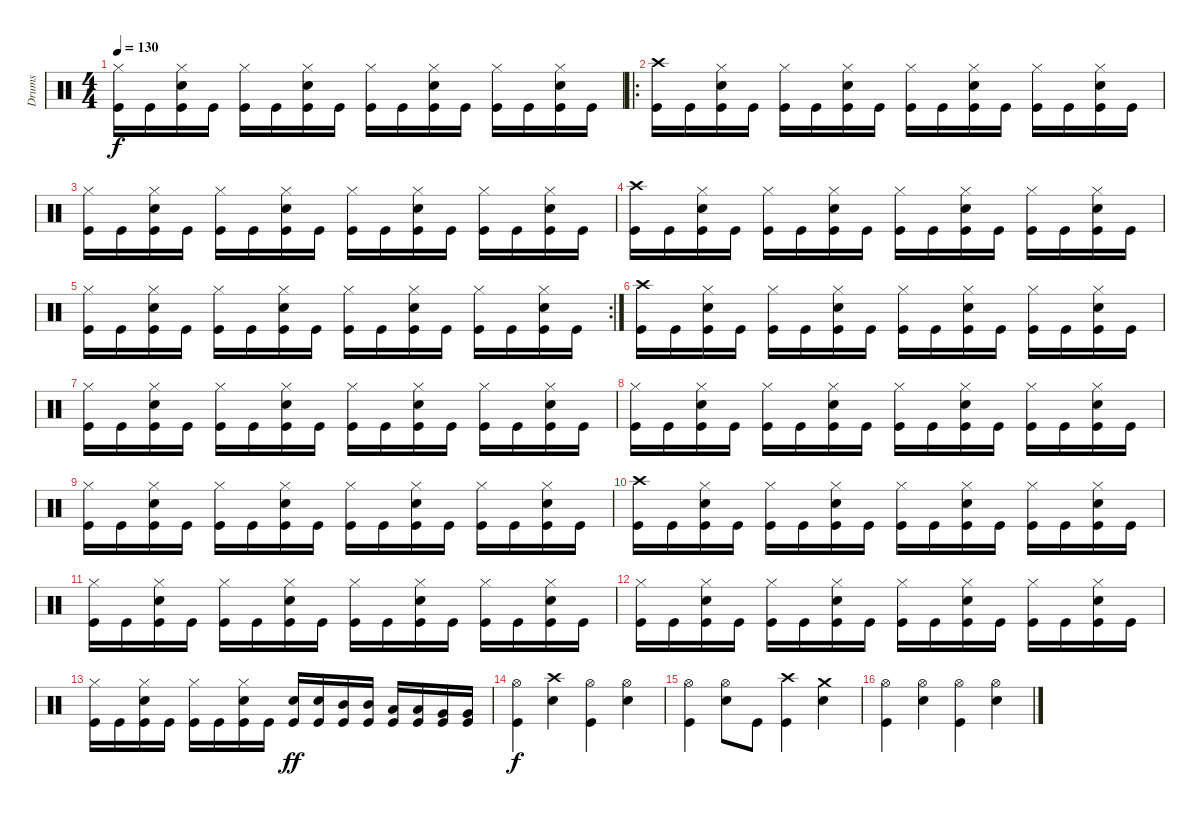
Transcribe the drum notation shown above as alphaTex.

\track ("Drums" "Drums") {instrument percussion}
\staff {score}
\articulation defaults
\ts (4 4)
\tempo 130
\clef neutral
\ks c
("Hi-Hat (closed)" "Kick (hit)").16{dy f} "Kick (hit)".16 ("Hi-Hat (closed)" "Snare (hit) 2" "Kick (hit)").16 "Kick (hit)".16 ("Hi-Hat (closed)" "Kick (hit)").16 "Kick (hit)".16 ("Hi-Hat (closed)" "Snare (hit) 2" "Kick (hit)").16 "Kick (hit)".16 ("Hi-Hat (closed)" "Kick (hit)").16 "Kick (hit)".16 ("Hi-Hat (closed)" "Snare (hit) 2" "Kick (hit)").16 "Kick (hit)".16 ("Hi-Hat (closed)" "Kick (hit)").16 "Kick (hit)".16 ("Hi-Hat (closed)" "Snare (hit) 2" "Kick (hit)").16 "Kick (hit)".16 |
\ro
("Crash high (hit)" "Kick (hit)").16 "Kick (hit)".16 ("Hi-Hat (closed)" "Snare (hit) 2" "Kick (hit)").16 "Kick (hit)".16 ("Hi-Hat (closed)" "Kick (hit)").16 "Kick (hit)".16 ("Hi-Hat (closed)" "Snare (hit) 2" "Kick (hit)").16 "Kick (hit)".16 ("Hi-Hat (closed)" "Kick (hit)").16 "Kick (hit)".16 ("Hi-Hat (closed)" "Snare (hit) 2" "Kick (hit)").16 "Kick (hit)".16 ("Hi-Hat (closed)" "Kick (hit)").16 "Kick (hit)".16 ("Hi-Hat (closed)" "Snare (hit) 2" "Kick (hit)").16 "Kick (hit)".16 |
("Hi-Hat (closed)" "Kick (hit)").16 "Kick (hit)".16 ("Hi-Hat (closed)" "Snare (hit) 2" "Kick (hit)").16 "Kick (hit)".16 ("Hi-Hat (closed)" "Kick (hit)").16 "Kick (hit)".16 ("Hi-Hat (closed)" "Snare (hit) 2" "Kick (hit)").16 "Kick (hit)".16 ("Hi-Hat (closed)" "Kick (hit)").16 "Kick (hit)".16 ("Hi-Hat (closed)" "Snare (hit) 2" "Kick (hit)").16 "Kick (hit)".16 ("Hi-Hat (closed)" "Kick (hit)").16 "Kick (hit)".16 ("Hi-Hat (closed)" "Snare (hit) 2" "Kick (hit)").16 "Kick (hit)".16 |
("Crash high (hit)" "Kick (hit)").16 "Kick (hit)".16 ("Hi-Hat (closed)" "Snare (hit) 2" "Kick (hit)").16 "Kick (hit)".16 ("Hi-Hat (closed)" "Kick (hit)").16 "Kick (hit)".16 ("Hi-Hat (closed)" "Snare (hit) 2" "Kick (hit)").16 "Kick (hit)".16 ("Hi-Hat (closed)" "Kick (hit)").16 "Kick (hit)".16 ("Hi-Hat (closed)" "Snare (hit) 2" "Kick (hit)").16 "Kick (hit)".16 ("Hi-Hat (closed)" "Kick (hit)").16 "Kick (hit)".16 ("Hi-Hat (closed)" "Snare (hit) 2" "Kick (hit)").16 "Kick (hit)".16 |
\rc 2
("Hi-Hat (closed)" "Kick (hit)").16 "Kick (hit)".16 ("Hi-Hat (closed)" "Snare (hit) 2" "Kick (hit)").16 "Kick (hit)".16 ("Hi-Hat (closed)" "Kick (hit)").16 "Kick (hit)".16 ("Hi-Hat (closed)" "Snare (hit) 2" "Kick (hit)").16 "Kick (hit)".16 ("Hi-Hat (closed)" "Kick (hit)").16 "Kick (hit)".16 ("Hi-Hat (closed)" "Snare (hit) 2" "Kick (hit)").16 "Kick (hit)".16 ("Hi-Hat (closed)" "Kick (hit)").16 "Kick (hit)".16 ("Hi-Hat (closed)" "Snare (hit) 2" "Kick (hit)").16 "Kick (hit)".16 |
("Crash high (hit)" "Kick (hit)").16 "Kick (hit)".16 ("Hi-Hat (closed)" "Snare (hit) 2" "Kick (hit)").16 "Kick (hit)".16 ("Hi-Hat (closed)" "Kick (hit)").16 "Kick (hit)".16 ("Hi-Hat (closed)" "Snare (hit) 2" "Kick (hit)").16 "Kick (hit)".16 ("Hi-Hat (closed)" "Kick (hit)").16 "Kick (hit)".16 ("Hi-Hat (closed)" "Snare (hit) 2" "Kick (hit)").16 "Kick (hit)".16 ("Hi-Hat (closed)" "Kick (hit)").16 "Kick (hit)".16 ("Hi-Hat (closed)" "Snare (hit) 2" "Kick (hit)").16 "Kick (hit)".16 |
("Hi-Hat (closed)" "Kick (hit)").16 "Kick (hit)".16 ("Hi-Hat (closed)" "Snare (hit) 2" "Kick (hit)").16 "Kick (hit)".16 ("Hi-Hat (closed)" "Kick (hit)").16 "Kick (hit)".16 ("Hi-Hat (closed)" "Snare (hit) 2" "Kick (hit)").16 "Kick (hit)".16 ("Hi-Hat (closed)" "Kick (hit)").16 "Kick (hit)".16 ("Hi-Hat (closed)" "Snare (hit) 2" "Kick (hit)").16 "Kick (hit)".16 ("Hi-Hat (closed)" "Kick (hit)").16 "Kick (hit)".16 ("Hi-Hat (closed)" "Snare (hit) 2" "Kick (hit)").16 "Kick (hit)".16 |
("Hi-Hat (closed)" "Kick (hit)").16 "Kick (hit)".16 ("Hi-Hat (closed)" "Snare (hit) 2" "Kick (hit)").16 "Kick (hit)".16 ("Hi-Hat (closed)" "Kick (hit)").16 "Kick (hit)".16 ("Hi-Hat (closed)" "Snare (hit) 2" "Kick (hit)").16 "Kick (hit)".16 ("Hi-Hat (closed)" "Kick (hit)").16 "Kick (hit)".16 ("Hi-Hat (closed)" "Snare (hit) 2" "Kick (hit)").16 "Kick (hit)".16 ("Hi-Hat (closed)" "Kick (hit)").16 "Kick (hit)".16 ("Hi-Hat (closed)" "Snare (hit) 2" "Kick (hit)").16 "Kick (hit)".16 |
("Hi-Hat (closed)" "Kick (hit)").16 "Kick (hit)".16 ("Hi-Hat (closed)" "Snare (hit) 2" "Kick (hit)").16 "Kick (hit)".16 ("Hi-Hat (closed)" "Kick (hit)").16 "Kick (hit)".16 ("Hi-Hat (closed)" "Snare (hit) 2" "Kick (hit)").16 "Kick (hit)".16 ("Hi-Hat (closed)" "Kick (hit)").16 "Kick (hit)".16 ("Hi-Hat (closed)" "Snare (hit) 2" "Kick (hit)").16 "Kick (hit)".16 ("Hi-Hat (closed)" "Kick (hit)").16 "Kick (hit)".16 ("Hi-Hat (closed)" "Snare (hit) 2" "Kick (hit)").16 "Kick (hit)".16 |
("Crash high (hit)" "Kick (hit)").16 "Kick (hit)".16 ("Hi-Hat (closed)" "Snare (hit) 2" "Kick (hit)").16 "Kick (hit)".16 ("Hi-Hat (closed)" "Kick (hit)").16 "Kick (hit)".16 ("Hi-Hat (closed)" "Snare (hit) 2" "Kick (hit)").16 "Kick (hit)".16 ("Hi-Hat (closed)" "Kick (hit)").16 "Kick (hit)".16 ("Hi-Hat (closed)" "Snare (hit) 2" "Kick (hit)").16 "Kick (hit)".16 ("Hi-Hat (closed)" "Kick (hit)").16 "Kick (hit)".16 ("Hi-Hat (closed)" "Snare (hit) 2" "Kick (hit)").16 "Kick (hit)".16 |
("Hi-Hat (closed)" "Kick (hit)").16 "Kick (hit)".16 ("Hi-Hat (closed)" "Snare (hit) 2" "Kick (hit)").16 "Kick (hit)".16 ("Hi-Hat (closed)" "Kick (hit)").16 "Kick (hit)".16 ("Hi-Hat (closed)" "Snare (hit) 2" "Kick (hit)").16 "Kick (hit)".16 ("Hi-Hat (closed)" "Kick (hit)").16 "Kick (hit)".16 ("Hi-Hat (closed)" "Snare (hit) 2" "Kick (hit)").16 "Kick (hit)".16 ("Hi-Hat (closed)" "Kick (hit)").16 "Kick (hit)".16 ("Hi-Hat (closed)" "Snare (hit) 2" "Kick (hit)").16 "Kick (hit)".16 |
("Hi-Hat (closed)" "Kick (hit)").16 "Kick (hit)".16 ("Hi-Hat (closed)" "Snare (hit) 2" "Kick (hit)").16 "Kick (hit)".16 ("Hi-Hat (closed)" "Kick (hit)").16 "Kick (hit)".16 ("Hi-Hat (closed)" "Snare (hit) 2" "Kick (hit)").16 "Kick (hit)".16 ("Hi-Hat (closed)" "Kick (hit)").16 "Kick (hit)".16 ("Hi-Hat (closed)" "Snare (hit) 2" "Kick (hit)").16 "Kick (hit)".16 ("Hi-Hat (closed)" "Kick (hit)").16 "Kick (hit)".16 ("Hi-Hat (closed)" "Snare (hit) 2" "Kick (hit)").16 "Kick (hit)".16 |
("Hi-Hat (closed)" "Kick (hit)").16 "Kick (hit)".16 ("Hi-Hat (closed)" "Snare (hit) 2" "Kick (hit)").16 "Kick (hit)".16 ("Hi-Hat (closed)" "Kick (hit)").16 "Kick (hit)".16 ("Hi-Hat (closed)" "Snare (hit) 2" "Kick (hit)").16 "Kick (hit)".16 ("Snare (hit) 2" "Kick (hit)").16{dy ff} ("Snare (hit) 2" "Kick (hit)").16 ("Mid Tom (hit)" "Kick (hit)").16 ("Mid Tom (hit)" "Kick (hit)").16 ("Low Tom (hit)" "Kick (hit)").16 ("Low Tom (hit)" "Kick (hit)").16 ("Very Low Tom (hit)" "Kick (hit)").16 ("Very Low Tom (hit)" "Kick (hit)").16 |
("Hi-Hat (open)" "Kick (hit)").4{dy f} ("Crash high (hit)" "Snare (hit) 2").4 ("Hi-Hat (open)" "Kick (hit)").4 ("Hi-Hat (open)" "Snare (hit) 2").4 |
("Hi-Hat (open)" "Kick (hit)").4 ("Hi-Hat (open)" "Snare (hit) 2").8 "Kick (hit)".8 ("Crash high (hit)" "Kick (hit)").4 ("Crash medium (hit)" "Snare (hit) 2").4 |
("Hi-Hat (open)" "Kick (hit)").4 ("Hi-Hat (open)" "Snare (hit) 2").4 ("Hi-Hat (open)" "Kick (hit)").4 ("Hi-Hat (open)" "Snare (hit) 2").4
